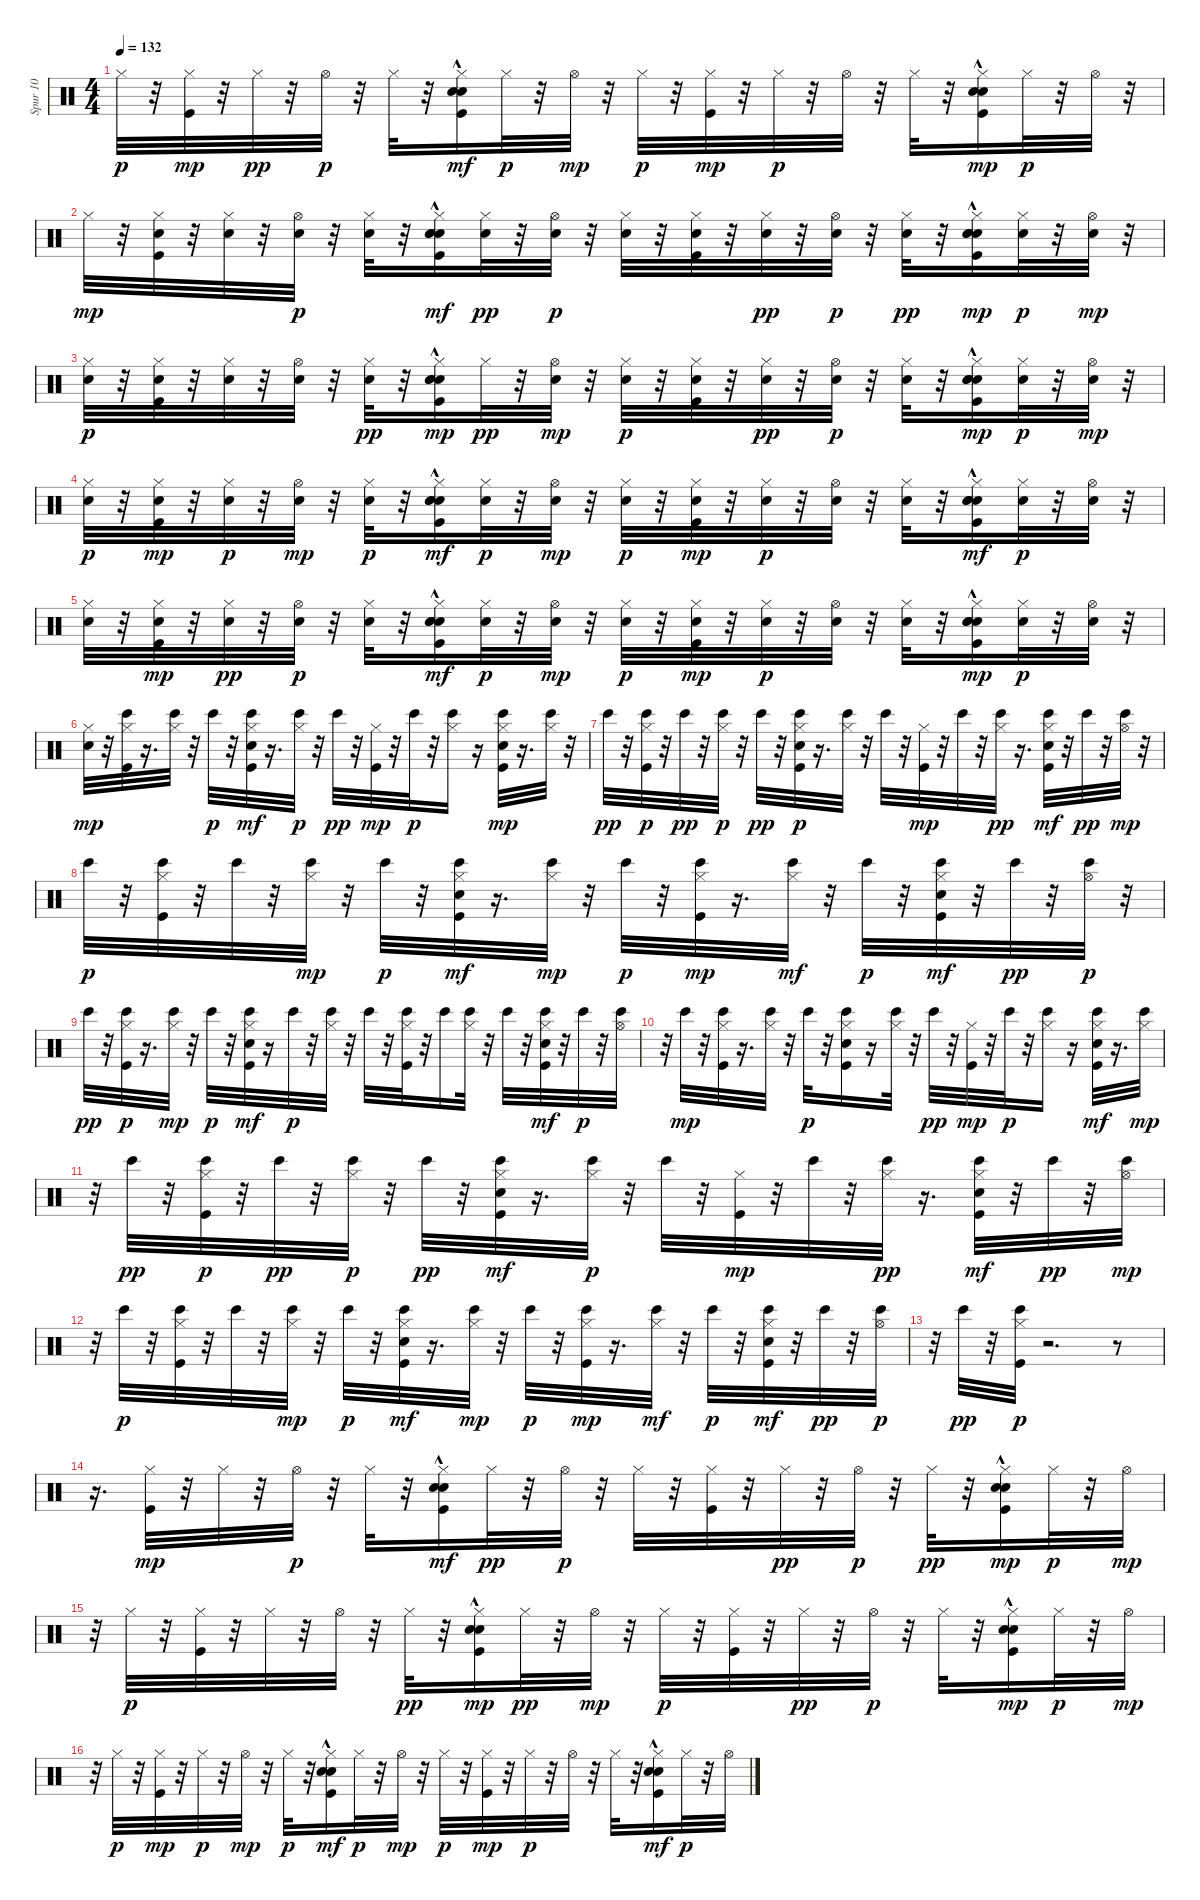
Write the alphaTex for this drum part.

\track ("Spur 10" "Spur 10") {instrument percussion}
\staff {score}
\articulation defaults
\ts (4 4)
\tempo 132
\clef neutral
\ks c "Hi-Hat (closed)".32{dy p}
r.32 ("Hi-Hat (closed)" "Kick (hit)").32{dy mp} r.32 "Hi-Hat (closed)".32{dy pp} r.32 "Hi-Hat (open)".32{dy p} r.32 "Hi-Hat (closed)".32 r.32 ("Hi-Hat (closed)" "Snare (hit) 2" "Kick (hit)" "Hand Clap (hit)"{hac}).16{dy mf} "Hi-Hat (closed)".32{dy p} r.32 "Hi-Hat (open)".32{dy mp} r.32 "Hi-Hat (closed)".32{dy p} r.32 ("Hi-Hat (closed)" "Kick (hit)").32{dy mp} r.32 "Hi-Hat (closed)".32{dy p} r.32 "Hi-Hat (open)".32 r.32 "Hi-Hat (closed)".32 r.32 ("Hi-Hat (closed)" "Kick (hit)" "Snare (hit) 2" "Hand Clap (hit)"{hac}).16{dy mp} "Hi-Hat (closed)".32{dy p} r.32 "Hi-Hat (open)".32 r.32 |
"Hi-Hat (closed)".32{dy mp} r.32 ("Electric Snare (hit)" "Kick (hit)" "Hi-Hat (closed)").32 r.32 ("Electric Snare (hit)" "Hi-Hat (closed)").32 r.32 ("Electric Snare (hit)" "Hi-Hat (open)").32{dy p} r.32 ("Electric Snare (hit)" "Hi-Hat (closed)").32 r.32 ("Electric Snare (hit)" "Hi-Hat (closed)" "Snare (hit) 2" "Kick (hit)" "Hand Clap (hit)"{hac}).16{dy mf} ("Electric Snare (hit)" "Hi-Hat (closed)").32{dy pp} r.32 ("Electric Snare (hit)" "Hi-Hat (open)").32{dy p} r.32 ("Electric Snare (hit)" "Hi-Hat (closed)").32 r.32 ("Electric Snare (hit)" "Hi-Hat (closed)" "Kick (hit)").32 r.32 ("Electric Snare (hit)" "Hi-Hat (closed)").32{dy pp} r.32 ("Electric Snare (hit)" "Hi-Hat (open)").32{dy p} r.32 ("Electric Snare (hit)" "Hi-Hat (closed)").32{dy pp} r.32 ("Electric Snare (hit)" "Hi-Hat (closed)" "Kick (hit)" "Snare (hit) 2" "Hand Clap (hit)"{hac}).16{dy mp} ("Electric Snare (hit)" "Hi-Hat (closed)").32{dy p} r.32 ("Electric Snare (hit)" "Hi-Hat (open)").32{dy mp} r.32 |
("Electric Snare (hit)" "Hi-Hat (closed)").32{dy p} r.32 ("Electric Snare (hit)" "Hi-Hat (closed)" "Kick (hit)").32 r.32 ("Electric Snare (hit)" "Hi-Hat (closed)").32 r.32 ("Electric Snare (hit)" "Hi-Hat (open)").32 r.32 ("Electric Snare (hit)" "Hi-Hat (closed)").32{dy pp} r.32 ("Electric Snare (hit)" "Hi-Hat (closed)" "Kick (hit)" "Snare (hit) 2" "Hand Clap (hit)"{hac}).16{dy mp} "Hi-Hat (closed)".32{dy pp} r.32 ("Electric Snare (hit)" "Hi-Hat (open)").32{dy mp} r.32 ("Electric Snare (hit)" "Hi-Hat (closed)").32{dy p} r.32 ("Electric Snare (hit)" "Hi-Hat (closed)" "Kick (hit)").32 r.32 ("Electric Snare (hit)" "Hi-Hat (closed)").32{dy pp} r.32 ("Electric Snare (hit)" "Hi-Hat (open)").32{dy p} r.32 ("Electric Snare (hit)" "Hi-Hat (closed)").32 r.32 ("Electric Snare (hit)" "Hi-Hat (closed)" "Kick (hit)" "Snare (hit) 2" "Hand Clap (hit)"{hac}).16{dy mp} ("Electric Snare (hit)" "Hi-Hat (closed)").32{dy p} r.32 ("Electric Snare (hit)" "Hi-Hat (open)").32{dy mp} r.32 |
("Electric Snare (hit)" "Hi-Hat (closed)").32{dy p} r.32 ("Electric Snare (hit)" "Hi-Hat (closed)" "Kick (hit)").32{dy mp} r.32 ("Electric Snare (hit)" "Hi-Hat (closed)").32{dy p} r.32 ("Electric Snare (hit)" "Hi-Hat (open)").32{dy mp} r.32 ("Electric Snare (hit)" "Hi-Hat (closed)").32{dy p} r.32 ("Electric Snare (hit)" "Hi-Hat (closed)" "Snare (hit) 2" "Kick (hit)" "Hand Clap (hit)"{hac}).16{dy mf} ("Electric Snare (hit)" "Hi-Hat (closed)").32{dy p} r.32 ("Electric Snare (hit)" "Hi-Hat (open)").32{dy mp} r.32 ("Electric Snare (hit)" "Hi-Hat (closed)").32{dy p} r.32 ("Electric Snare (hit)" "Hi-Hat (closed)" "Kick (hit)").32{dy mp} r.32 ("Electric Snare (hit)" "Hi-Hat (closed)").32{dy p} r.32 ("Electric Snare (hit)" "Hi-Hat (open)").32 r.32 ("Electric Snare (hit)" "Hi-Hat (closed)").32 r.32 ("Electric Snare (hit)" "Hi-Hat (closed)" "Snare (hit) 2" "Kick (hit)" "Hand Clap (hit)"{hac}).16{dy mf} ("Electric Snare (hit)" "Hi-Hat (closed)").32{dy p} r.32 ("Electric Snare (hit)" "Hi-Hat (open)").32 r.32 |
("Electric Snare (hit)" "Hi-Hat (closed)").32 r.32 ("Electric Snare (hit)" "Hi-Hat (closed)" "Kick (hit)").32{dy mp} r.32 ("Electric Snare (hit)" "Hi-Hat (closed)").32{dy pp} r.32 ("Electric Snare (hit)" "Hi-Hat (open)").32{dy p} r.32 ("Electric Snare (hit)" "Hi-Hat (closed)").32 r.32 ("Electric Snare (hit)" "Hi-Hat (closed)" "Snare (hit) 2" "Kick (hit)" "Hand Clap (hit)"{hac}).16{dy mf} ("Electric Snare (hit)" "Hi-Hat (closed)").32{dy p} r.32 ("Electric Snare (hit)" "Hi-Hat (open)").32{dy mp} r.32 ("Electric Snare (hit)" "Hi-Hat (closed)").32{dy p} r.32 ("Electric Snare (hit)" "Hi-Hat (closed)" "Kick (hit)").32{dy mp} r.32 ("Electric Snare (hit)" "Hi-Hat (closed)").32{dy p} r.32 ("Electric Snare (hit)" "Hi-Hat (open)").32 r.32 ("Electric Snare (hit)" "Hi-Hat (closed)").32 r.32 ("Electric Snare (hit)" "Hi-Hat (closed)" "Kick (hit)" "Snare (hit) 2" "Hand Clap (hit)"{hac}).16{dy mp} ("Electric Snare (hit)" "Hi-Hat (closed)").32{dy p} r.32 ("Electric Snare (hit)" "Hi-Hat (open)").32 r.32 |
("Electric Snare (hit)" "Hi-Hat (closed)").32{dy mp} r.32 ("Bongo High (hit)" "Kick (hit)" "Hi-Hat (closed)").32 r.16{d} ("Bongo High (hit)" "Hi-Hat (closed)").32 r.32 "Bongo High (hit)".32{dy p} r.32 ("Hi-Hat (closed)" "Snare (hit) 2" "Bongo High (hit)" "Kick (hit)").32{dy mf} r.16{d} ("Hi-Hat (closed)" "Bongo High (hit)").32{dy p} r.32 "Bongo High (hit)".32{dy pp} r.32 ("Hi-Hat (closed)" "Kick (hit)").32{dy mp} r.32 "Bongo High (hit)".32{dy p} r.32 ("Hi-Hat (closed)" "Bongo High (hit)").16 r.16 ("Kick (hit)" "Bongo High (hit)" "Hi-Hat (closed)" "Snare (hit) 2").32{dy mp} r.16{d} ("Bongo High (hit)" "Hi-Hat (closed)").32 r.32 |
"Bongo High (hit)".32{dy pp} r.32 ("Hi-Hat (closed)" "Bongo High (hit)" "Kick (hit)").32{dy p} r.32 "Bongo High (hit)".32{dy pp} r.32 ("Hi-Hat (closed)" "Bongo High (hit)").32{dy p} r.32 "Bongo High (hit)".32{dy pp} r.32 ("Kick (hit)" "Hi-Hat (closed)" "Snare (hit) 2" "Bongo High (hit)").32{dy p} r.16{d} ("Bongo High (hit)" "Hi-Hat (closed)").32 r.32 "Bongo High (hit)".32 r.32 ("Hi-Hat (closed)" "Kick (hit)").32{dy mp} r.32 "Bongo High (hit)".32 r.32 ("Hi-Hat (closed)" "Bongo High (hit)").32{dy pp} r.16{d} ("Kick (hit)" "Bongo High (hit)" "Hi-Hat (closed)" "Snare (hit) 2").32{dy mf} r.32 "Bongo High (hit)".32{dy pp} r.32 ("Hi-Hat (open)" "Bongo High (hit)").32{dy mp} r.32 |
"Bongo High (hit)".32{dy p} r.32 ("Hi-Hat (closed)" "Kick (hit)" "Bongo High (hit)").32 r.32 "Bongo High (hit)".32 r.32 ("Hi-Hat (closed)" "Bongo High (hit)").32{dy mp} r.32 "Bongo High (hit)".32{dy p} r.32 ("Hi-Hat (closed)" "Snare (hit) 2" "Bongo High (hit)" "Kick (hit)").32{dy mf} r.16{d} ("Bongo High (hit)" "Hi-Hat (closed)").32{dy mp} r.32 "Bongo High (hit)".32{dy p} r.32 ("Bongo High (hit)" "Hi-Hat (closed)" "Kick (hit)").32{dy mp} r.16{d} ("Bongo High (hit)" "Hi-Hat (closed)").32{dy mf} r.32 "Bongo High (hit)".32{dy p} r.32 ("Bongo High (hit)" "Hi-Hat (closed)" "Snare (hit) 2" "Kick (hit)").32{dy mf} r.32 "Bongo High (hit)".32{dy pp} r.32 ("Bongo High (hit)" "Hi-Hat (open)").32{dy p} r.32 |
"Bongo High (hit)".32{dy pp} r.32 ("Hi-Hat (closed)" "Kick (hit)" "Bongo High (hit)").32{dy p} r.16{d} ("Bongo High (hit)" "Hi-Hat (closed)").32{dy mp} r.32 "Bongo High (hit)".32{dy p} r.32 ("Bongo High (hit)" "Hi-Hat (closed)" "Snare (hit) 2" "Kick (hit)").32{dy mf} r.16 "Bongo High (hit)".32{dy p} r.32 ("Hi-Hat (closed)" "Bongo High (hit)").32 r.32 "Bongo High (hit)".32 r.32 ("Hi-Hat (closed)" "Kick (hit)" "Bongo High (hit)").32 r.32 "Bongo High (hit)".16 ("Hi-Hat (closed)" "Bongo High (hit)").32 r.32 "Bongo High (hit)".32 r.32 ("Hi-Hat (closed)" "Snare (hit) 2" "Bongo High (hit)" "Kick (hit)").32{dy mf} r.32 "Bongo High (hit)".32{dy p} r.32 ("Hi-Hat (open)" "Bongo High (hit)").32 |
r.32 "Bongo High (hit)".32{dy mp} r.32 ("Bongo High (hit)" "Kick (hit)" "Hi-Hat (closed)").32 r.16{d} ("Bongo High (hit)" "Hi-Hat (closed)").32 r.32 "Bongo High (hit)".32{dy p} r.32 ("Kick (hit)" "Hi-Hat (closed)" "Snare (hit) 2" "Bongo High (hit)").16 r.16 ("Hi-Hat (closed)" "Bongo High (hit)").32 r.32 "Bongo High (hit)".32{dy pp} r.32 ("Hi-Hat (closed)" "Kick (hit)").32{dy mp} r.32 "Bongo High (hit)".32{dy p} r.32 ("Hi-Hat (closed)" "Bongo High (hit)").16 r.16 ("Bongo High (hit)" "Hi-Hat (closed)" "Snare (hit) 2" "Kick (hit)").32{dy mf} r.16{d} ("Bongo High (hit)" "Hi-Hat (closed)").32{dy mp} |
r.32 "Bongo High (hit)".32{dy pp} r.32 ("Hi-Hat (closed)" "Bongo High (hit)" "Kick (hit)").32{dy p} r.32 "Bongo High (hit)".32{dy pp} r.32 ("Hi-Hat (closed)" "Bongo High (hit)").32{dy p} r.32 "Bongo High (hit)".32{dy pp} r.32 ("Hi-Hat (closed)" "Snare (hit) 2" "Bongo High (hit)" "Kick (hit)").32{dy mf} r.16{d} ("Bongo High (hit)" "Hi-Hat (closed)").32{dy p} r.32 "Bongo High (hit)".32 r.32 ("Hi-Hat (closed)" "Kick (hit)").32{dy mp} r.32 "Bongo High (hit)".32 r.32 ("Hi-Hat (closed)" "Bongo High (hit)").32{dy pp} r.16{d} ("Bongo High (hit)" "Hi-Hat (closed)" "Snare (hit) 2" "Kick (hit)").32{dy mf} r.32 "Bongo High (hit)".32{dy pp} r.32 ("Hi-Hat (open)" "Bongo High (hit)").32{dy mp} |
r.32 "Bongo High (hit)".32{dy p} r.32 ("Hi-Hat (closed)" "Kick (hit)" "Bongo High (hit)").32 r.32 "Bongo High (hit)".32 r.32 ("Hi-Hat (closed)" "Bongo High (hit)").32{dy mp} r.32 "Bongo High (hit)".32{dy p} r.32 ("Hi-Hat (closed)" "Snare (hit) 2" "Bongo High (hit)" "Kick (hit)").32{dy mf} r.16{d} ("Bongo High (hit)" "Hi-Hat (closed)").32{dy mp} r.32 "Bongo High (hit)".32{dy p} r.32 ("Bongo High (hit)" "Hi-Hat (closed)" "Kick (hit)").32{dy mp} r.16{d} ("Bongo High (hit)" "Hi-Hat (closed)").32{dy mf} r.32 "Bongo High (hit)".32{dy p} r.32 ("Bongo High (hit)" "Hi-Hat (closed)" "Snare (hit) 2" "Kick (hit)").32{dy mf} r.32 "Bongo High (hit)".32{dy pp} r.32 ("Bongo High (hit)" "Hi-Hat (open)").32{dy p} |
r.32 "Bongo High (hit)".32{dy pp} r.32 ("Hi-Hat (closed)" "Kick (hit)" "Bongo High (hit)").32{dy p} r.2{d} r.8 |
r.16{d} ("Kick (hit)" "Hi-Hat (closed)").32{dy mp} r.32 "Hi-Hat (closed)".32 r.32 "Hi-Hat (open)".32{dy p} r.32 "Hi-Hat (closed)".32 r.32 ("Hi-Hat (closed)" "Snare (hit) 2" "Kick (hit)" "Hand Clap (hit)"{hac}).16{dy mf} "Hi-Hat (closed)".32{dy pp} r.32 "Hi-Hat (open)".32{dy p} r.32 "Hi-Hat (closed)".32 r.32 ("Hi-Hat (closed)" "Kick (hit)").32 r.32 "Hi-Hat (closed)".32{dy pp} r.32 "Hi-Hat (open)".32{dy p} r.32 "Hi-Hat (closed)".32{dy pp} r.32 ("Hi-Hat (closed)" "Kick (hit)" "Snare (hit) 2" "Hand Clap (hit)"{hac}).16{dy mp} "Hi-Hat (closed)".32{dy p} r.32 "Hi-Hat (open)".32{dy mp} |
r.32 "Hi-Hat (closed)".32{dy p} r.32 ("Hi-Hat (closed)" "Kick (hit)").32 r.32 "Hi-Hat (closed)".32 r.32 "Hi-Hat (open)".32 r.32 "Hi-Hat (closed)".32{dy pp} r.32 ("Hi-Hat (closed)" "Kick (hit)" "Snare (hit) 2" "Hand Clap (hit)"{hac}).16{dy mp} "Hi-Hat (closed)".32{dy pp} r.32 "Hi-Hat (open)".32{dy mp} r.32 "Hi-Hat (closed)".32{dy p} r.32 ("Hi-Hat (closed)" "Kick (hit)").32 r.32 "Hi-Hat (closed)".32{dy pp} r.32 "Hi-Hat (open)".32{dy p} r.32 "Hi-Hat (closed)".32 r.32 ("Hi-Hat (closed)" "Kick (hit)" "Snare (hit) 2" "Hand Clap (hit)"{hac}).16{dy mp} "Hi-Hat (closed)".32{dy p} r.32 "Hi-Hat (open)".32{dy mp} |
r.32 "Hi-Hat (closed)".32{dy p} r.32 ("Hi-Hat (closed)" "Kick (hit)").32{dy mp} r.32 "Hi-Hat (closed)".32{dy p} r.32 "Hi-Hat (open)".32{dy mp} r.32 "Hi-Hat (closed)".32{dy p} r.32 ("Hi-Hat (closed)" "Snare (hit) 2" "Kick (hit)" "Hand Clap (hit)"{hac}).16{dy mf} "Hi-Hat (closed)".32{dy p} r.32 "Hi-Hat (open)".32{dy mp} r.32 "Hi-Hat (closed)".32{dy p} r.32 ("Hi-Hat (closed)" "Kick (hit)").32{dy mp} r.32 "Hi-Hat (closed)".32{dy p} r.32 "Hi-Hat (open)".32 r.32 "Hi-Hat (closed)".32 r.32 ("Hi-Hat (closed)" "Snare (hit) 2" "Kick (hit)" "Hand Clap (hit)"{hac}).16{dy mf} "Hi-Hat (closed)".32{dy p} r.32 "Hi-Hat (open)".32
